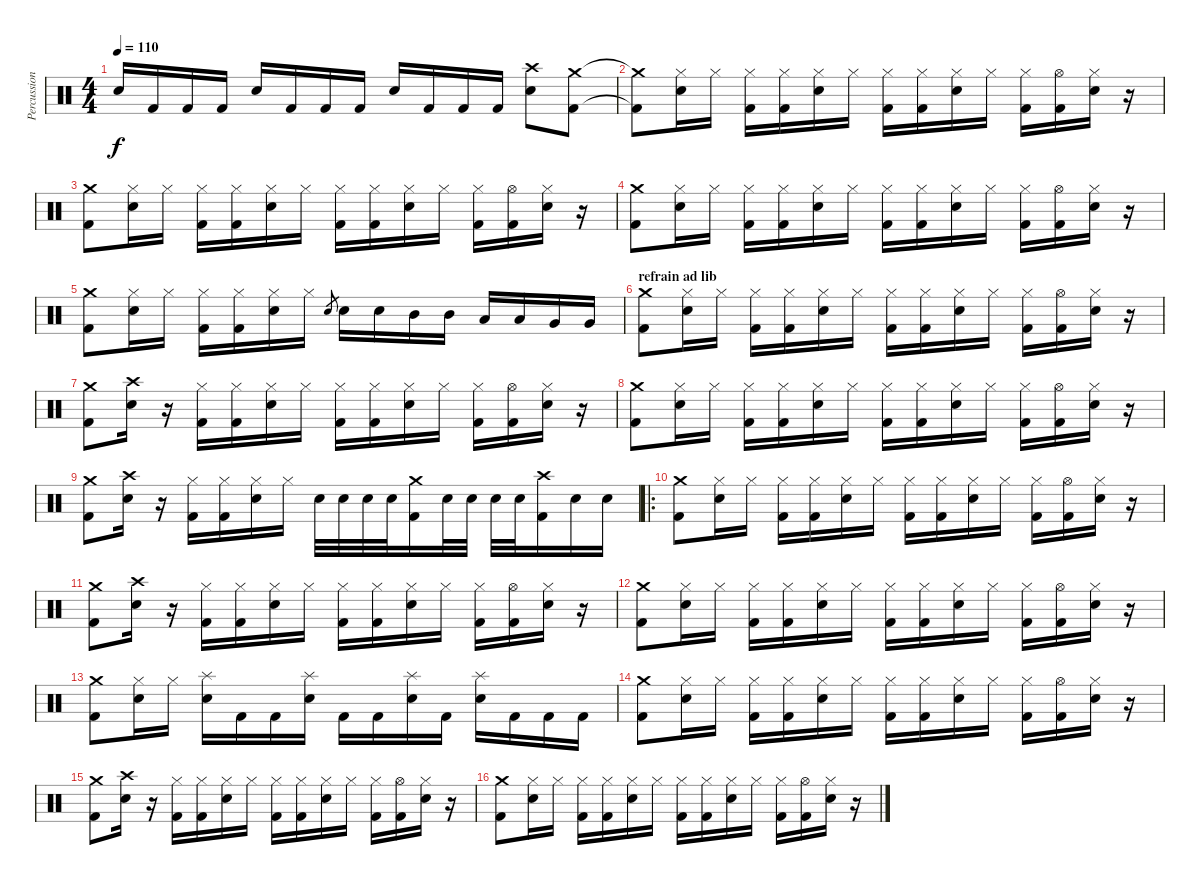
\track ("Percussions" "Percussion") {instrument percussion}
\staff {score}
\articulation defaults
\ts (4 4)
\tempo 110
\clef neutral
\ks c "Electric Snare (hit)".16{dy f} "Kick (hit) 2".16 "Kick (hit) 2".16 "Kick (hit) 2".16 "Electric Snare (hit)".16 "Kick (hit) 2".16 "Kick (hit) 2".16 "Kick (hit) 2".16 "Electric Snare (hit)".16 "Kick (hit) 2".16 "Kick (hit) 2".16 "Kick (hit) 2".16
("Crash high (hit)" "Electric Snare (hit)").8 ("Crash medium (hit)" "Kick (hit) 2").8 |
("Crash medium (hit)"{t} "Kick (hit) 2"{t}).8 ("Hi-Hat (closed)" "Electric Snare (hit)").16 "Hi-Hat (closed)".16 ("Hi-Hat (closed)" "Kick (hit) 2").16 ("Hi-Hat (closed)" "Kick (hit) 2").16 ("Hi-Hat (closed)" "Electric Snare (hit)").16 "Hi-Hat (closed)".16 ("Hi-Hat (closed)" "Kick (hit) 2").16 ("Hi-Hat (closed)" "Kick (hit) 2").16 ("Hi-Hat (closed)" "Electric Snare (hit)").16 "Hi-Hat (closed)".16 ("Hi-Hat (closed)" "Kick (hit) 2").16 ("Hi-Hat (open)" "Kick (hit) 2").16 ("Hi-Hat (closed)" "Electric Snare (hit)").16 r.16 |
("Crash medium (hit)" "Kick (hit) 2").8 ("Hi-Hat (closed)" "Electric Snare (hit)").16 "Hi-Hat (closed)".16 ("Hi-Hat (closed)" "Kick (hit) 2").16 ("Hi-Hat (closed)" "Kick (hit) 2").16 ("Hi-Hat (closed)" "Electric Snare (hit)").16 "Hi-Hat (closed)".16 ("Hi-Hat (closed)" "Kick (hit) 2").16 ("Hi-Hat (closed)" "Kick (hit) 2").16 ("Hi-Hat (closed)" "Electric Snare (hit)").16 "Hi-Hat (closed)".16 ("Hi-Hat (closed)" "Kick (hit) 2").16 ("Hi-Hat (open)" "Kick (hit) 2").16 ("Hi-Hat (closed)" "Electric Snare (hit)").16 r.16 |
("Crash medium (hit)" "Kick (hit) 2").8 ("Hi-Hat (closed)" "Electric Snare (hit)").16 "Hi-Hat (closed)".16 ("Hi-Hat (closed)" "Kick (hit) 2").16 ("Hi-Hat (closed)" "Kick (hit) 2").16 ("Hi-Hat (closed)" "Electric Snare (hit)").16 "Hi-Hat (closed)".16 ("Hi-Hat (closed)" "Kick (hit) 2").16 ("Hi-Hat (closed)" "Kick (hit) 2").16 ("Hi-Hat (closed)" "Electric Snare (hit)").16 "Hi-Hat (closed)".16 ("Hi-Hat (closed)" "Kick (hit) 2").16 ("Hi-Hat (open)" "Kick (hit) 2").16 ("Hi-Hat (closed)" "Electric Snare (hit)").16 r.16 |
("Crash medium (hit)" "Kick (hit) 2").8 ("Hi-Hat (closed)" "Electric Snare (hit)").16 "Hi-Hat (closed)".16 ("Hi-Hat (closed)" "Kick (hit) 2").16 ("Hi-Hat (closed)" "Kick (hit) 2").16 ("Hi-Hat (closed)" "Electric Snare (hit)").16 "Hi-Hat (closed)".16 "Electric Snare (hit)".8{gr} "Electric Snare (hit)".16 "Electric Snare (hit)".16 "Mid Tom (hit)".16 "Mid Tom (hit)".16 "Low Tom (hit)".16 "Low Tom (hit)".16 "Very Low Tom (hit)".16 "Very Low Tom (hit)".16 |
\section ("" "refrain ad lib")
("Crash medium (hit)" "Kick (hit) 2").8 ("Hi-Hat (closed)" "Electric Snare (hit)").16 "Hi-Hat (closed)".16 ("Hi-Hat (closed)" "Kick (hit) 2").16 ("Hi-Hat (closed)" "Kick (hit) 2").16 ("Hi-Hat (closed)" "Electric Snare (hit)").16 "Hi-Hat (closed)".16 ("Hi-Hat (closed)" "Kick (hit) 2").16 ("Hi-Hat (closed)" "Kick (hit) 2").16 ("Hi-Hat (closed)" "Electric Snare (hit)").16 "Hi-Hat (closed)".16 ("Hi-Hat (closed)" "Kick (hit) 2").16 ("Hi-Hat (open)" "Kick (hit) 2").16 ("Hi-Hat (closed)" "Electric Snare (hit)").16 r.16 |
("Crash medium (hit)" "Kick (hit) 2").8 ("Crash high (hit)" "Electric Snare (hit)").16 r.16 ("Hi-Hat (closed)" "Kick (hit) 2").16 ("Hi-Hat (closed)" "Kick (hit) 2").16 ("Hi-Hat (closed)" "Electric Snare (hit)").16 "Hi-Hat (closed)".16 ("Hi-Hat (closed)" "Kick (hit) 2").16 ("Hi-Hat (closed)" "Kick (hit) 2").16 ("Hi-Hat (closed)" "Electric Snare (hit)").16 "Hi-Hat (closed)".16 ("Hi-Hat (closed)" "Kick (hit) 2").16 ("Hi-Hat (open)" "Kick (hit) 2").16 ("Hi-Hat (closed)" "Electric Snare (hit)").16 r.16 |
("Crash medium (hit)" "Kick (hit) 2").8 ("Hi-Hat (closed)" "Electric Snare (hit)").16 "Hi-Hat (closed)".16 ("Hi-Hat (closed)" "Kick (hit) 2").16 ("Hi-Hat (closed)" "Kick (hit) 2").16 ("Hi-Hat (closed)" "Electric Snare (hit)").16 "Hi-Hat (closed)".16 ("Hi-Hat (closed)" "Kick (hit) 2").16 ("Hi-Hat (closed)" "Kick (hit) 2").16 ("Hi-Hat (closed)" "Electric Snare (hit)").16 "Hi-Hat (closed)".16 ("Hi-Hat (closed)" "Kick (hit) 2").16 ("Hi-Hat (open)" "Kick (hit) 2").16 ("Hi-Hat (closed)" "Electric Snare (hit)").16 r.16 |
("Crash medium (hit)" "Kick (hit) 2").8 ("Crash high (hit)" "Electric Snare (hit)").16 r.16 ("Hi-Hat (closed)" "Kick (hit) 2").16 ("Hi-Hat (closed)" "Kick (hit) 2").16 ("Hi-Hat (closed)" "Electric Snare (hit)").16 "Hi-Hat (closed)".16 "Electric Snare (hit)".32 "Electric Snare (hit)".32 "Electric Snare (hit)".32 "Electric Snare (hit)".32 ("Crash medium (hit)" "Kick (hit) 2").16 "Electric Snare (hit)".32 "Electric Snare (hit)".32 "Electric Snare (hit)".32 "Electric Snare (hit)".32 ("Crash high (hit)" "Kick (hit) 2").16 "Electric Snare (hit)".16 "Electric Snare (hit)".16 |
\ro
("Crash medium (hit)" "Kick (hit) 2").8 ("Hi-Hat (closed)" "Electric Snare (hit)").16 "Hi-Hat (closed)".16 ("Hi-Hat (closed)" "Kick (hit) 2").16 ("Hi-Hat (closed)" "Kick (hit) 2").16 ("Hi-Hat (closed)" "Electric Snare (hit)").16 "Hi-Hat (closed)".16 ("Hi-Hat (closed)" "Kick (hit) 2").16 ("Hi-Hat (closed)" "Kick (hit) 2").16 ("Hi-Hat (closed)" "Electric Snare (hit)").16 "Hi-Hat (closed)".16 ("Hi-Hat (closed)" "Kick (hit) 2").16 ("Hi-Hat (open)" "Kick (hit) 2").16 ("Hi-Hat (closed)" "Electric Snare (hit)").16 r.16 |
("Crash medium (hit)" "Kick (hit) 2").8 ("Crash high (hit)" "Electric Snare (hit)").16 r.16 ("Hi-Hat (closed)" "Kick (hit) 2").16 ("Hi-Hat (closed)" "Kick (hit) 2").16 ("Hi-Hat (closed)" "Electric Snare (hit)").16 "Hi-Hat (closed)".16 ("Hi-Hat (closed)" "Kick (hit) 2").16 ("Hi-Hat (closed)" "Kick (hit) 2").16 ("Hi-Hat (closed)" "Electric Snare (hit)").16 "Hi-Hat (closed)".16 ("Hi-Hat (closed)" "Kick (hit) 2").16 ("Hi-Hat (open)" "Kick (hit) 2").16 ("Hi-Hat (closed)" "Electric Snare (hit)").16 r.16 |
("Crash medium (hit)" "Kick (hit) 2").8 ("Hi-Hat (closed)" "Electric Snare (hit)").16 "Hi-Hat (closed)".16 ("Hi-Hat (closed)" "Kick (hit) 2").16 ("Hi-Hat (closed)" "Kick (hit) 2").16 ("Hi-Hat (closed)" "Electric Snare (hit)").16 "Hi-Hat (closed)".16 ("Hi-Hat (closed)" "Kick (hit) 2").16 ("Hi-Hat (closed)" "Kick (hit) 2").16 ("Hi-Hat (closed)" "Electric Snare (hit)").16 "Hi-Hat (closed)".16 ("Hi-Hat (closed)" "Kick (hit) 2").16 ("Hi-Hat (open)" "Kick (hit) 2").16 ("Hi-Hat (closed)" "Electric Snare (hit)").16 r.16 |
("Crash medium (hit)" "Kick (hit) 2").8 ("Hi-Hat (closed)" "Electric Snare (hit)").16 "Hi-Hat (closed)".16 ("Splash (hit)" "Electric Snare (hit)").16 "Kick (hit) 2".16 "Kick (hit) 2".16 ("Splash (hit)" "Electric Snare (hit)").16 "Kick (hit) 2".16 "Kick (hit) 2".16 ("Splash (hit)" "Electric Snare (hit)").16 "Kick (hit) 2".16 ("Splash (hit)" "Electric Snare (hit)").16 "Kick (hit) 2".16 "Kick (hit) 2".16 "Kick (hit) 2".16 |
("Crash medium (hit)" "Kick (hit) 2").8 ("Hi-Hat (closed)" "Electric Snare (hit)").16 "Hi-Hat (closed)".16 ("Hi-Hat (closed)" "Kick (hit) 2").16 ("Hi-Hat (closed)" "Kick (hit) 2").16 ("Hi-Hat (closed)" "Electric Snare (hit)").16 "Hi-Hat (closed)".16 ("Hi-Hat (closed)" "Kick (hit) 2").16 ("Hi-Hat (closed)" "Kick (hit) 2").16 ("Hi-Hat (closed)" "Electric Snare (hit)").16 "Hi-Hat (closed)".16 ("Hi-Hat (closed)" "Kick (hit) 2").16 ("Hi-Hat (open)" "Kick (hit) 2").16 ("Hi-Hat (closed)" "Electric Snare (hit)").16 r.16 |
("Crash medium (hit)" "Kick (hit) 2").8 ("Crash high (hit)" "Electric Snare (hit)").16 r.16 ("Hi-Hat (closed)" "Kick (hit) 2").16 ("Hi-Hat (closed)" "Kick (hit) 2").16 ("Hi-Hat (closed)" "Electric Snare (hit)").16 "Hi-Hat (closed)".16 ("Hi-Hat (closed)" "Kick (hit) 2").16 ("Hi-Hat (closed)" "Kick (hit) 2").16 ("Hi-Hat (closed)" "Electric Snare (hit)").16 "Hi-Hat (closed)".16 ("Hi-Hat (closed)" "Kick (hit) 2").16 ("Hi-Hat (open)" "Kick (hit) 2").16 ("Hi-Hat (closed)" "Electric Snare (hit)").16 r.16 |
("Crash medium (hit)" "Kick (hit) 2").8 ("Hi-Hat (closed)" "Electric Snare (hit)").16 "Hi-Hat (closed)".16 ("Hi-Hat (closed)" "Kick (hit) 2").16 ("Hi-Hat (closed)" "Kick (hit) 2").16 ("Hi-Hat (closed)" "Electric Snare (hit)").16 "Hi-Hat (closed)".16 ("Hi-Hat (closed)" "Kick (hit) 2").16 ("Hi-Hat (closed)" "Kick (hit) 2").16 ("Hi-Hat (closed)" "Electric Snare (hit)").16 "Hi-Hat (closed)".16 ("Hi-Hat (closed)" "Kick (hit) 2").16 ("Hi-Hat (open)" "Kick (hit) 2").16 ("Hi-Hat (closed)" "Electric Snare (hit)").16 r.16
